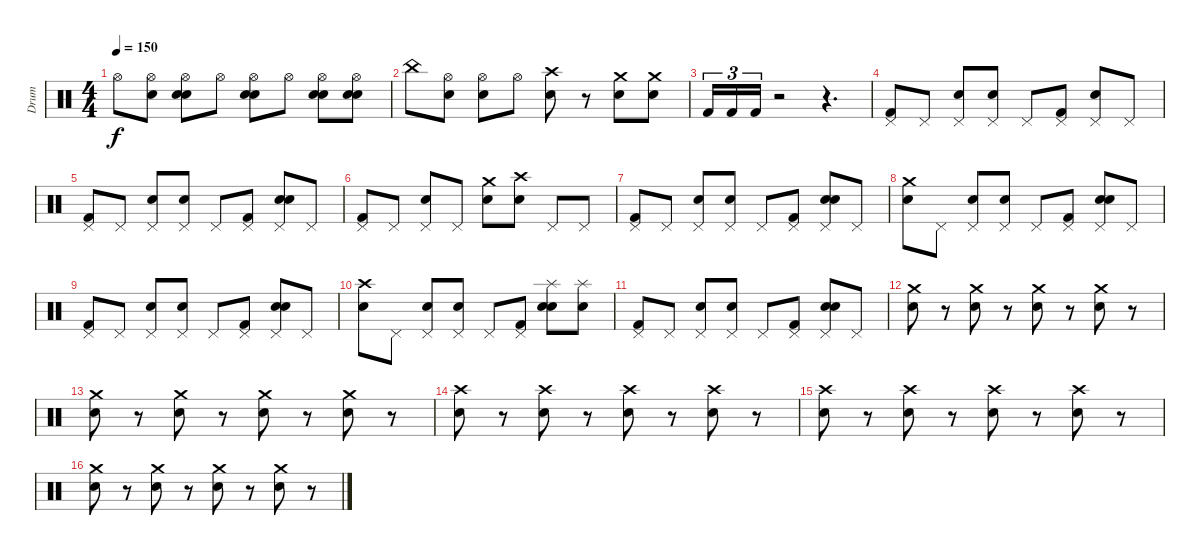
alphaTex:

\track ("Drum" "Drum") {instrument percussion}
\staff {score}
\articulation defaults
\ts (4 4)
\tempo 150
\clef neutral
\ks c "Hi-Hat (open)".8{dy f}
("Hi-Hat (open)" "Electric Snare (hit)").8 ("Hi-Hat (open)" "Electric Snare (hit)" "Electric Snare (hit)").8 "Hi-Hat (open)".8 ("Hi-Hat (open)" "Electric Snare (hit)" "Electric Snare (hit)").8 "Hi-Hat (open)".8 ("Hi-Hat (open)" "Electric Snare (hit)" "Electric Snare (hit)").8 ("Hi-Hat (open)" "Electric Snare (hit)" "Electric Snare (hit)").8 |
"China (hit)".8 ("Hi-Hat (open)" "Electric Snare (hit)").8 ("Hi-Hat (open)" "Electric Snare (hit)").8 "Hi-Hat (open)".8 ("Crash high (hit)" "Electric Snare (hit)").8 r.8 ("Crash medium (hit)" "Electric Snare (hit)").8 ("Crash medium (hit)" "Electric Snare (hit)").8 |
"Kick (hit) 2".16{tu (3 2)} "Kick (hit) 2".16{tu (3 2)} "Kick (hit) 2".16{tu (3 2)} r.2 r.4{d} |
("Pedal Hi-Hat (hit)" "Kick (hit) 2").8 "Pedal Hi-Hat (hit)".8 ("Pedal Hi-Hat (hit)" "Snare (hit) 2").8 ("Pedal Hi-Hat (hit)" "Snare (hit) 2").8 "Pedal Hi-Hat (hit)".8 ("Pedal Hi-Hat (hit)" "Kick (hit) 2").8 ("Pedal Hi-Hat (hit)" "Snare (hit) 2").8 "Pedal Hi-Hat (hit)".8 |
("Pedal Hi-Hat (hit)" "Kick (hit) 2").8 "Pedal Hi-Hat (hit)".8 ("Pedal Hi-Hat (hit)" "Electric Snare (hit)").8 ("Pedal Hi-Hat (hit)" "Electric Snare (hit)").8 "Pedal Hi-Hat (hit)".8 ("Pedal Hi-Hat (hit)" "Kick (hit) 2").8 ("Pedal Hi-Hat (hit)" "Electric Snare (hit)" "Electric Snare (hit)").8 "Pedal Hi-Hat (hit)".8 |
("Pedal Hi-Hat (hit)" "Kick (hit) 2").8 "Pedal Hi-Hat (hit)".8 ("Pedal Hi-Hat (hit)" "Snare (hit) 2").8 "Pedal Hi-Hat (hit)".8 ("Crash medium (hit)" "Electric Snare (hit)").8 ("Crash high (hit)" "Snare (hit) 2").8 "Pedal Hi-Hat (hit)".8 "Pedal Hi-Hat (hit)".8 |
("Pedal Hi-Hat (hit)" "Kick (hit) 2").8 "Pedal Hi-Hat (hit)".8 ("Pedal Hi-Hat (hit)" "Electric Snare (hit)").8 ("Pedal Hi-Hat (hit)" "Electric Snare (hit)").8 "Pedal Hi-Hat (hit)".8 ("Pedal Hi-Hat (hit)" "Kick (hit) 2").8 ("Pedal Hi-Hat (hit)" "Electric Snare (hit)" "Electric Snare (hit)").8 "Pedal Hi-Hat (hit)".8 |
("Crash medium (hit)" "Electric Snare (hit)").8 "Pedal Hi-Hat (hit)".8 ("Pedal Hi-Hat (hit)" "Electric Snare (hit)").8 ("Pedal Hi-Hat (hit)" "Electric Snare (hit)").8 "Pedal Hi-Hat (hit)".8 ("Pedal Hi-Hat (hit)" "Kick (hit) 2").8 ("Pedal Hi-Hat (hit)" "Electric Snare (hit)" "Electric Snare (hit)").8 "Pedal Hi-Hat (hit)".8 |
("Pedal Hi-Hat (hit)" "Kick (hit) 2").8 "Pedal Hi-Hat (hit)".8 ("Pedal Hi-Hat (hit)" "Electric Snare (hit)").8 ("Pedal Hi-Hat (hit)" "Electric Snare (hit)").8 "Pedal Hi-Hat (hit)".8 ("Pedal Hi-Hat (hit)" "Kick (hit) 2").8 ("Pedal Hi-Hat (hit)" "Electric Snare (hit)" "Electric Snare (hit)").8 "Pedal Hi-Hat (hit)".8 |
("Crash high (hit)" "Electric Snare (hit)").8 "Pedal Hi-Hat (hit)".8 ("Pedal Hi-Hat (hit)" "Electric Snare (hit)").8 ("Pedal Hi-Hat (hit)" "Electric Snare (hit)").8 "Pedal Hi-Hat (hit)".8 ("Pedal Hi-Hat (hit)" "Kick (hit) 2").8 ("Splash (hit)" "Electric Snare (hit)" "Electric Snare (hit)").8 ("Splash (hit)" "Electric Snare (hit)").8 |
("Pedal Hi-Hat (hit)" "Kick (hit) 2").8 "Pedal Hi-Hat (hit)".8 ("Pedal Hi-Hat (hit)" "Electric Snare (hit)").8 ("Pedal Hi-Hat (hit)" "Electric Snare (hit)").8 "Pedal Hi-Hat (hit)".8 ("Pedal Hi-Hat (hit)" "Kick (hit) 2").8 ("Pedal Hi-Hat (hit)" "Electric Snare (hit)" "Electric Snare (hit)").8 "Pedal Hi-Hat (hit)".8 |
("Crash medium (hit)" "Electric Snare (hit)").8 r.8 ("Crash medium (hit)" "Electric Snare (hit)").8 r.8 ("Crash medium (hit)" "Electric Snare (hit)").8 r.8 ("Crash medium (hit)" "Electric Snare (hit)").8 r.8 |
("Crash medium (hit)" "Electric Snare (hit)").8 r.8 ("Crash medium (hit)" "Electric Snare (hit)").8 r.8 ("Crash medium (hit)" "Electric Snare (hit)").8 r.8 ("Crash medium (hit)" "Electric Snare (hit)").8 r.8 |
("Crash high (hit)" "Electric Snare (hit)").8 r.8 ("Crash high (hit)" "Electric Snare (hit)").8 r.8 ("Crash high (hit)" "Electric Snare (hit)").8 r.8 ("Crash high (hit)" "Electric Snare (hit)").8 r.8 |
("Crash high (hit)" "Electric Snare (hit)").8 r.8 ("Crash high (hit)" "Electric Snare (hit)").8 r.8 ("Crash high (hit)" "Electric Snare (hit)").8 r.8 ("Crash high (hit)" "Electric Snare (hit)").8 r.8 |
("Crash medium (hit)" "Electric Snare (hit)").8 r.8 ("Crash medium (hit)" "Electric Snare (hit)").8 r.8 ("Crash medium (hit)" "Electric Snare (hit)").8 r.8 ("Crash medium (hit)" "Electric Snare (hit)").8 r.8
